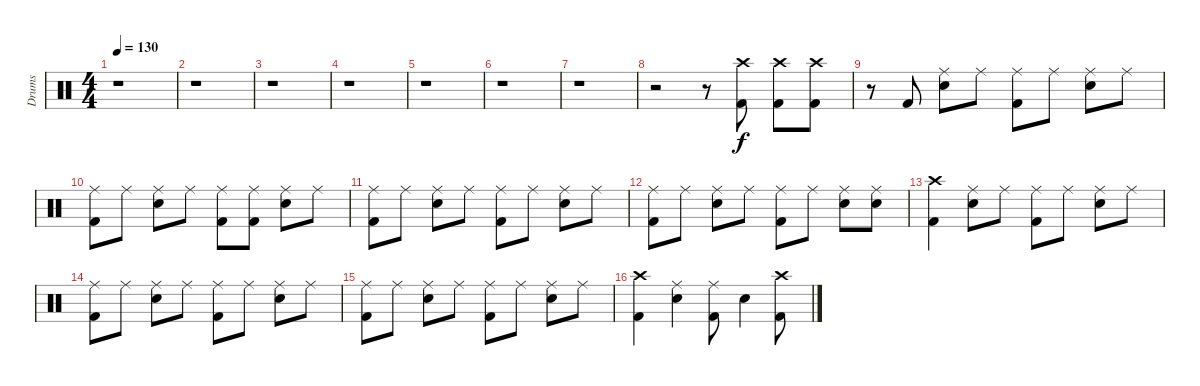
\track ("Drums" "Drums") {instrument percussion}
\staff {score}
\articulation defaults
\ts (4 4)
\tempo 130
\clef neutral
\ks c
r.1{dy f} |
r.1 |
r.1 |
r.1 |
r.1 |
r.1 |
r.1 |
r.2 r.8 ("Crash high (hit)" "Kick (hit) 2").8 ("Crash high (hit)" "Kick (hit) 2").8 ("Crash high (hit)" "Kick (hit) 2").8 |
r.8 "Kick (hit) 2".8 ("Ride (middle)" "Electric Snare (hit)").8 "Ride (middle)".8 ("Ride (middle)" "Kick (hit) 2").8 "Ride (middle)".8 ("Ride (middle)" "Electric Snare (hit)").8 "Ride (middle)".8 |
("Ride (middle)" "Kick (hit) 2").8 "Ride (middle)".8 ("Ride (middle)" "Electric Snare (hit)").8 "Ride (middle)".8 ("Ride (middle)" "Kick (hit) 2").8 ("Ride (middle)" "Kick (hit) 2").8 ("Ride (middle)" "Electric Snare (hit)").8 "Ride (middle)".8 |
("Ride (middle)" "Kick (hit) 2").8 "Ride (middle)".8 ("Ride (middle)" "Electric Snare (hit)").8 "Ride (middle)".8 ("Ride (middle)" "Kick (hit) 2").8 "Ride (middle)".8 ("Ride (middle)" "Electric Snare (hit)").8 "Ride (middle)".8 |
("Ride (middle)" "Kick (hit) 2").8 "Ride (middle)".8 ("Ride (middle)" "Electric Snare (hit)").8 "Ride (middle)".8 ("Ride (middle)" "Kick (hit) 2").8 "Ride (middle)".8 ("Ride (middle)" "Electric Snare (hit)").8 ("Ride (middle)" "Electric Snare (hit)").8 |
("Crash high (hit)" "Kick (hit) 2").4 ("Ride (middle)" "Electric Snare (hit)").8 "Ride (middle)".8 ("Ride (middle)" "Kick (hit) 2").8 "Ride (middle)".8 ("Ride (middle)" "Electric Snare (hit)").8 "Ride (middle)".8 |
("Ride (middle)" "Kick (hit) 2").8 "Ride (middle)".8 ("Ride (middle)" "Electric Snare (hit)").8 "Ride (middle)".8 ("Ride (middle)" "Kick (hit) 2").8 "Ride (middle)".8 ("Ride (middle)" "Electric Snare (hit)").8 "Ride (middle)".8 |
("Ride (middle)" "Kick (hit) 2").8 "Ride (middle)".8 ("Ride (middle)" "Electric Snare (hit)").8 "Ride (middle)".8 ("Ride (middle)" "Kick (hit) 2").8 "Ride (middle)".8 ("Ride (middle)" "Electric Snare (hit)").8 "Ride (middle)".8 |
("Crash high (hit)" "Kick (hit) 2").4 ("Ride (middle)" "Electric Snare (hit)").4 ("Ride (middle)" "Kick (hit) 2").8 "Electric Snare (hit)".4 ("Crash high (hit)" "Kick (hit) 2").8
